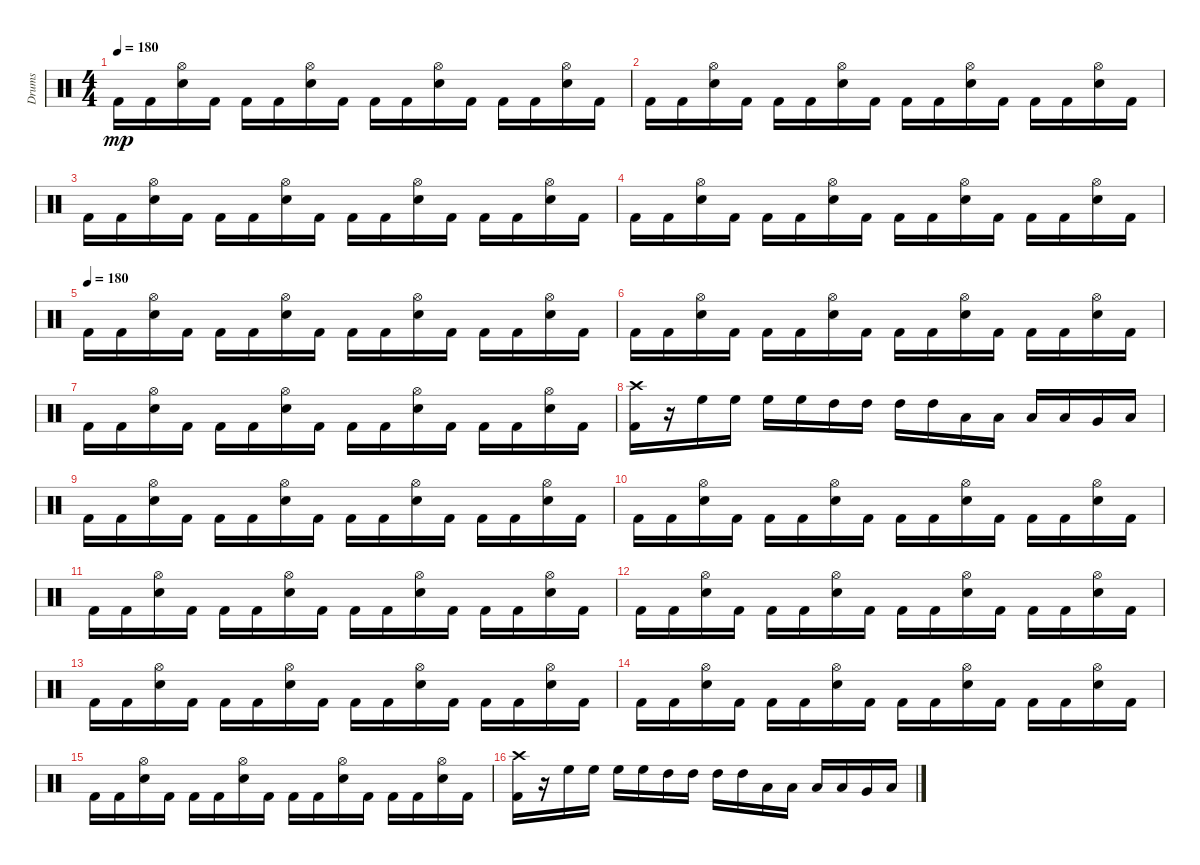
\track ("Drums" "Drums") {instrument percussion}
\staff {score}
\articulation defaults
\ts (4 4)
\tempo 180
\clef neutral
\ks c "Kick (hit) 2".16{dy mp} "Kick (hit) 2".16
("Hi-Hat (open)" "Electric Snare (hit)").16 "Kick (hit) 2".16 "Kick (hit) 2".16 "Kick (hit) 2".16 ("Electric Snare (hit)" "Hi-Hat (open)").16 "Kick (hit) 2".16 "Kick (hit) 2".16 "Kick (hit) 2".16 ("Hi-Hat (open)" "Electric Snare (hit)").16 "Kick (hit) 2".16 "Kick (hit) 2".16 "Kick (hit) 2".16 ("Hi-Hat (open)" "Electric Snare (hit)").16 "Kick (hit) 2".16 |
"Kick (hit) 2".16 "Kick (hit) 2".16 ("Hi-Hat (open)" "Electric Snare (hit)").16 "Kick (hit) 2".16 "Kick (hit) 2".16 "Kick (hit) 2".16 ("Hi-Hat (open)" "Electric Snare (hit)").16 "Kick (hit) 2".16 "Kick (hit) 2".16 "Kick (hit) 2".16 ("Hi-Hat (open)" "Electric Snare (hit)").16 "Kick (hit) 2".16 "Kick (hit) 2".16 "Kick (hit) 2".16 ("Electric Snare (hit)" "Hi-Hat (open)").16 "Kick (hit) 2".16 |
"Kick (hit) 2".16 "Kick (hit) 2".16 ("Electric Snare (hit)" "Hi-Hat (open)").16 "Kick (hit) 2".16 "Kick (hit) 2".16 "Kick (hit) 2".16 ("Hi-Hat (open)" "Electric Snare (hit)").16 "Kick (hit) 2".16 "Kick (hit) 2".16 "Kick (hit) 2".16 ("Electric Snare (hit)" "Hi-Hat (open)").16 "Kick (hit) 2".16 "Kick (hit) 2".16 "Kick (hit) 2".16 ("Electric Snare (hit)" "Hi-Hat (open)").16 "Kick (hit) 2".16 |
"Kick (hit) 2".16 "Kick (hit) 2".16 ("Electric Snare (hit)" "Hi-Hat (open)").16 "Kick (hit) 2".16 "Kick (hit) 2".16 "Kick (hit) 2".16 ("Electric Snare (hit)" "Hi-Hat (open)").16 "Kick (hit) 2".16 "Kick (hit) 2".16 "Kick (hit) 2".16 ("Electric Snare (hit)" "Hi-Hat (open)").16 "Kick (hit) 2".16 "Kick (hit) 2".16 "Kick (hit) 2".16 ("Electric Snare (hit)" "Hi-Hat (open)").16 "Kick (hit) 2".16 |
\tempo (180)
"Kick (hit) 2".16 "Kick (hit) 2".16 ("Hi-Hat (open)" "Electric Snare (hit)").16 "Kick (hit) 2".16 "Kick (hit) 2".16 "Kick (hit) 2".16 ("Hi-Hat (open)" "Electric Snare (hit)").16 "Kick (hit) 2".16 "Kick (hit) 2".16 "Kick (hit) 2".16 ("Electric Snare (hit)" "Hi-Hat (open)").16 "Kick (hit) 2".16 "Kick (hit) 2".16 "Kick (hit) 2".16 ("Electric Snare (hit)" "Hi-Hat (open)").16 "Kick (hit) 2".16 |
"Kick (hit) 2".16 "Kick (hit) 2".16 ("Electric Snare (hit)" "Hi-Hat (open)").16 "Kick (hit) 2".16 "Kick (hit) 2".16 "Kick (hit) 2".16 ("Electric Snare (hit)" "Hi-Hat (open)").16 "Kick (hit) 2".16 "Kick (hit) 2".16 "Kick (hit) 2".16 ("Electric Snare (hit)" "Hi-Hat (open)").16 "Kick (hit) 2".16 "Kick (hit) 2".16 "Kick (hit) 2".16 ("Hi-Hat (open)" "Electric Snare (hit)").16 "Kick (hit) 2".16 |
"Kick (hit) 2".16 "Kick (hit) 2".16 ("Hi-Hat (open)" "Electric Snare (hit)").16 "Kick (hit) 2".16 "Kick (hit) 2".16 "Kick (hit) 2".16 ("Hi-Hat (open)" "Electric Snare (hit)").16 "Kick (hit) 2".16 "Kick (hit) 2".16 "Kick (hit) 2".16 ("Electric Snare (hit)" "Hi-Hat (open)").16 "Kick (hit) 2".16 "Kick (hit) 2".16 "Kick (hit) 2".16 ("Hi-Hat (open)" "Electric Snare (hit)").16 "Kick (hit) 2".16 |
("Kick (hit) 2" "Crash high (hit)").16 r.16 "High Floor Tom (hit)".16 "High Floor Tom (hit)".16 "High Floor Tom (hit)".16 "High Floor Tom (hit)".16 "High Tom (hit)".16 "High Tom (hit)".16 "High Tom (hit)".16 "High Tom (hit)".16 "Low Tom (hit)".16 "Low Tom (hit)".16 "Low Tom (hit)".16 "Low Tom (hit)".16 "Very Low Tom (hit)".16 "Low Floor Tom (hit)".16 |
"Kick (hit) 2".16 "Kick (hit) 2".16 ("Electric Snare (hit)" "Hi-Hat (open)").16 "Kick (hit) 2".16 "Kick (hit) 2".16 "Kick (hit) 2".16 ("Hi-Hat (open)" "Electric Snare (hit)").16 "Kick (hit) 2".16 "Kick (hit) 2".16 "Kick (hit) 2".16 ("Hi-Hat (open)" "Electric Snare (hit)").16 "Kick (hit) 2".16 "Kick (hit) 2".16 "Kick (hit) 2".16 ("Electric Snare (hit)" "Hi-Hat (open)").16 "Kick (hit) 2".16 |
"Kick (hit) 2".16 "Kick (hit) 2".16 ("Hi-Hat (open)" "Electric Snare (hit)").16 "Kick (hit) 2".16 "Kick (hit) 2".16 "Kick (hit) 2".16 ("Hi-Hat (open)" "Electric Snare (hit)").16 "Kick (hit) 2".16 "Kick (hit) 2".16 "Kick (hit) 2".16 ("Electric Snare (hit)" "Hi-Hat (open)").16 "Kick (hit) 2".16 "Kick (hit) 2".16 "Kick (hit) 2".16 ("Hi-Hat (open)" "Electric Snare (hit)").16 "Kick (hit) 2".16 |
"Kick (hit) 2".16 "Kick (hit) 2".16 ("Electric Snare (hit)" "Hi-Hat (open)").16 "Kick (hit) 2".16 "Kick (hit) 2".16 "Kick (hit) 2".16 ("Electric Snare (hit)" "Hi-Hat (open)").16 "Kick (hit) 2".16 "Kick (hit) 2".16 "Kick (hit) 2".16 ("Hi-Hat (open)" "Electric Snare (hit)").16 "Kick (hit) 2".16 "Kick (hit) 2".16 "Kick (hit) 2".16 ("Hi-Hat (open)" "Electric Snare (hit)").16 "Kick (hit) 2".16 |
"Kick (hit) 2".16 "Kick (hit) 2".16 ("Hi-Hat (open)" "Electric Snare (hit)").16 "Kick (hit) 2".16 "Kick (hit) 2".16 "Kick (hit) 2".16 ("Hi-Hat (open)" "Electric Snare (hit)").16 "Kick (hit) 2".16 "Kick (hit) 2".16 "Kick (hit) 2".16 ("Electric Snare (hit)" "Hi-Hat (open)").16 "Kick (hit) 2".16 "Kick (hit) 2".16 "Kick (hit) 2".16 ("Hi-Hat (open)" "Electric Snare (hit)").16 "Kick (hit) 2".16 |
"Kick (hit) 2".16 "Kick (hit) 2".16 ("Hi-Hat (open)" "Electric Snare (hit)").16 "Kick (hit) 2".16 "Kick (hit) 2".16 "Kick (hit) 2".16 ("Hi-Hat (open)" "Electric Snare (hit)").16 "Kick (hit) 2".16 "Kick (hit) 2".16 "Kick (hit) 2".16 ("Hi-Hat (open)" "Electric Snare (hit)").16 "Kick (hit) 2".16 "Kick (hit) 2".16 "Kick (hit) 2".16 ("Hi-Hat (open)" "Electric Snare (hit)").16 "Kick (hit) 2".16 |
"Kick (hit) 2".16 "Kick (hit) 2".16 ("Electric Snare (hit)" "Hi-Hat (open)").16 "Kick (hit) 2".16 "Kick (hit) 2".16 "Kick (hit) 2".16 ("Electric Snare (hit)" "Hi-Hat (open)").16 "Kick (hit) 2".16 "Kick (hit) 2".16 "Kick (hit) 2".16 ("Hi-Hat (open)" "Electric Snare (hit)").16 "Kick (hit) 2".16 "Kick (hit) 2".16 "Kick (hit) 2".16 ("Hi-Hat (open)" "Electric Snare (hit)").16 "Kick (hit) 2".16 |
"Kick (hit) 2".16 "Kick (hit) 2".16 ("Electric Snare (hit)" "Hi-Hat (open)").16 "Kick (hit) 2".16 "Kick (hit) 2".16 "Kick (hit) 2".16 ("Hi-Hat (open)" "Electric Snare (hit)").16 "Kick (hit) 2".16 "Kick (hit) 2".16 "Kick (hit) 2".16 ("Electric Snare (hit)" "Hi-Hat (open)").16 "Kick (hit) 2".16 "Kick (hit) 2".16 "Kick (hit) 2".16 ("Electric Snare (hit)" "Hi-Hat (open)").16 "Kick (hit) 2".16 |
("Kick (hit) 2" "Crash high (hit)").16 r.16 "High Floor Tom (hit)".16 "High Floor Tom (hit)".16 "High Floor Tom (hit)".16 "High Floor Tom (hit)".16 "High Tom (hit)".16 "High Tom (hit)".16 "High Tom (hit)".16 "High Tom (hit)".16 "Low Tom (hit)".16 "Low Tom (hit)".16 "Low Tom (hit)".16 "Low Tom (hit)".16 "Very Low Tom (hit)".16 "Low Floor Tom (hit)".16
